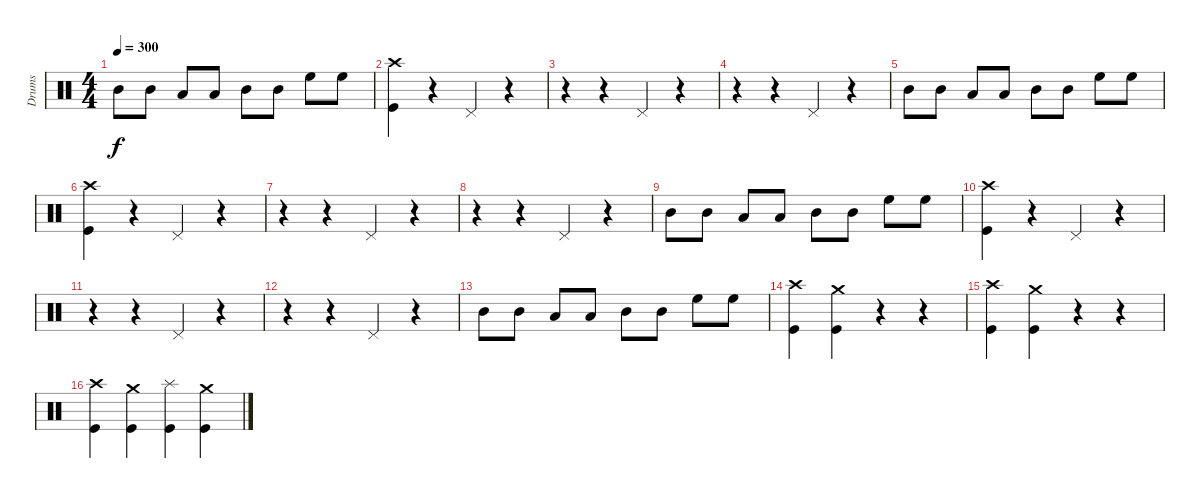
\track ("Drums" "Drums") {instrument percussion}
\staff {score}
\articulation defaults
\ts (4 4)
\tempo 300
\clef neutral
\ks c "Mid Tom (hit)".8{dy f} "Mid Tom (hit)".8 "Low Tom (hit)".8 "Low Tom (hit)".8 "Mid Tom (hit)".8 "Mid Tom (hit)".8 "High Floor Tom (hit)".8 "High Floor Tom (hit)".8
|
("Crash high (hit)" "Kick (hit)").4 r.4 "Pedal Hi-Hat (hit)".4 r.4 |
r.4 r.4 "Pedal Hi-Hat (hit)".4 r.4 |
r.4 r.4 "Pedal Hi-Hat (hit)".4 r.4 |
"Mid Tom (hit)".8 "Mid Tom (hit)".8 "Low Tom (hit)".8 "Low Tom (hit)".8 "Mid Tom (hit)".8 "Mid Tom (hit)".8 "High Floor Tom (hit)".8 "High Floor Tom (hit)".8 |
("Crash high (hit)" "Kick (hit)").4 r.4 "Pedal Hi-Hat (hit)".4 r.4 |
r.4 r.4 "Pedal Hi-Hat (hit)".4 r.4 |
r.4 r.4 "Pedal Hi-Hat (hit)".4 r.4 |
"Mid Tom (hit)".8 "Mid Tom (hit)".8 "Low Tom (hit)".8 "Low Tom (hit)".8 "Mid Tom (hit)".8 "Mid Tom (hit)".8 "High Floor Tom (hit)".8 "High Floor Tom (hit)".8 |
("Crash high (hit)" "Kick (hit)").4 r.4 "Pedal Hi-Hat (hit)".4 r.4 |
r.4 r.4 "Pedal Hi-Hat (hit)".4 r.4 |
r.4 r.4 "Pedal Hi-Hat (hit)".4 r.4 |
"Mid Tom (hit)".8 "Mid Tom (hit)".8 "Low Tom (hit)".8 "Low Tom (hit)".8 "Mid Tom (hit)".8 "Mid Tom (hit)".8 "High Floor Tom (hit)".8 "High Floor Tom (hit)".8 |
("Crash high (hit)" "Kick (hit)").4 ("Crash medium (hit)" "Kick (hit)").4 r.4 r.4 |
("Crash high (hit)" "Kick (hit)").4 ("Crash medium (hit)" "Kick (hit)").4 r.4 r.4 |
("Crash high (hit)" "Kick (hit)").4 ("Crash medium (hit)" "Kick (hit)").4 ("Splash (hit)" "Kick (hit)").4 ("Crash medium (hit)" "Kick (hit)").4
